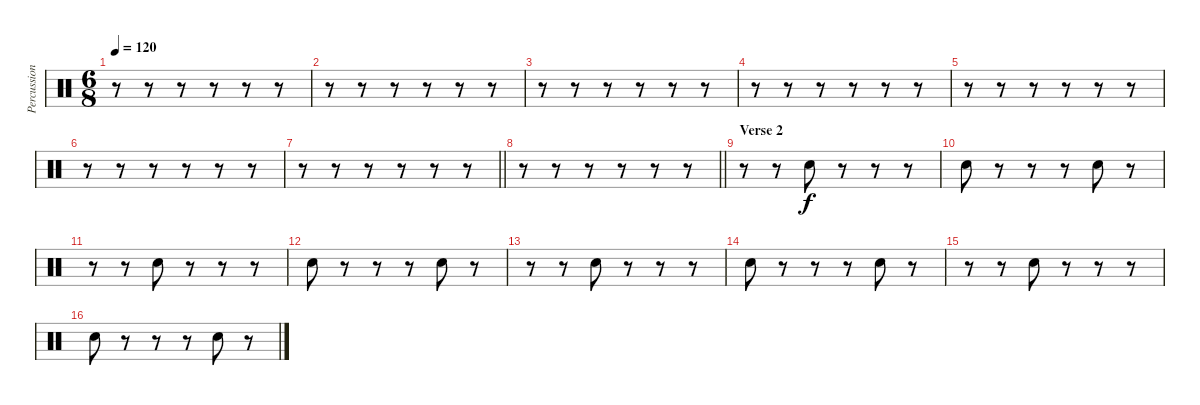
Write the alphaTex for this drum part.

\track ("Percussion" "Percussion") {instrument percussion}
\staff {score}
\articulation defaults
\ts (6 8)
\tempo 120
\clef neutral
\ks c
r.8{dy f} r.8 r.8 r.8 r.8 r.8 |
r.8 r.8 r.8 r.8 r.8 r.8 |
r.8 r.8 r.8 r.8 r.8 r.8 |
r.8 r.8 r.8 r.8 r.8 r.8 |
r.8 r.8 r.8 r.8 r.8 r.8 |
r.8 r.8 r.8 r.8 r.8 r.8 |
\barLineRight lightlight
r.8 r.8 r.8 r.8 r.8 r.8 |
\barLineRight lightlight
r.8 r.8 r.8 r.8 r.8 r.8 |
\section ("" "Verse 2")
r.8 r.8 "Snare (hit) 2".8 r.8 r.8 r.8 |
"Snare (hit) 2".8 r.8 r.8 r.8 "Snare (hit) 2".8 r.8 |
r.8 r.8 "Snare (hit) 2".8 r.8 r.8 r.8 |
"Snare (hit) 2".8 r.8 r.8 r.8 "Snare (hit) 2".8 r.8 |
r.8 r.8 "Snare (hit) 2".8 r.8 r.8 r.8 |
"Snare (hit) 2".8 r.8 r.8 r.8 "Snare (hit) 2".8 r.8 |
r.8 r.8 "Snare (hit) 2".8 r.8 r.8 r.8 |
"Snare (hit) 2".8 r.8 r.8 r.8 "Snare (hit) 2".8 r.8
